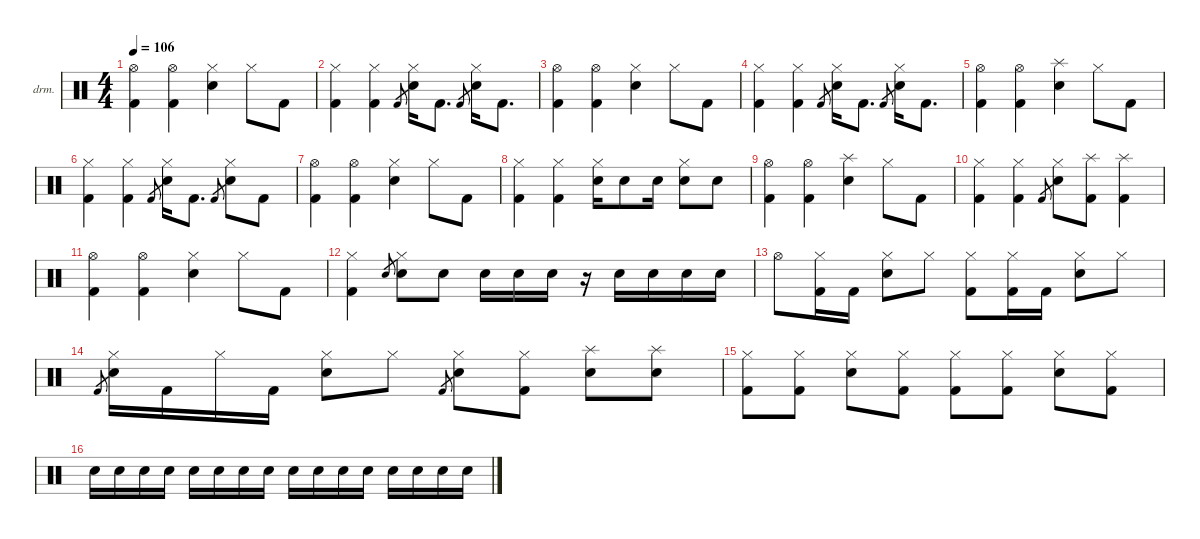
\defaultSystemsLayout 4
\hideDynamics
\bracketExtendMode nobrackets
\firstSystemTrackNameOrientation horizontal
\otherSystemsTrackNameOrientation horizontal
\track ("Lars Ulrich" "drm.") {instrument percussion}
\staff {score}
\articulation defaults
\ts (4 4)
\tempo 106
\clef neutral
\ks c
("Hi-Hat (open)" "Kick (hit) 2").4{dy f} ("Hi-Hat (open)" "Kick (hit) 2").4 ("Hi-Hat (closed)" "Snare (hit) 2").4 "Hi-Hat (closed)".8 "Kick (hit) 2".8 |
("Hi-Hat (closed)" "Kick (hit) 2").4 ("Hi-Hat (closed)" "Kick (hit) 2").4 "Kick (hit) 2".8{gr dy mf} ("Hi-Hat (closed)" "Snare (hit) 2").16{dy f} "Kick (hit) 2".8{d} "Kick (hit) 2".8{gr dy mf} ("Hi-Hat (closed)" "Snare (hit) 2").16{dy f} "Kick (hit) 2".8{d} |
("Hi-Hat (open)" "Kick (hit) 2").4 ("Hi-Hat (open)" "Kick (hit) 2").4 ("Hi-Hat (closed)" "Snare (hit) 2").4 "Hi-Hat (closed)".8 "Kick (hit) 2".8 |
("Hi-Hat (closed)" "Kick (hit) 2").4 ("Hi-Hat (closed)" "Kick (hit) 2").4 "Kick (hit) 2".8{gr dy mf} ("Hi-Hat (closed)" "Snare (hit) 2").16{dy f} "Kick (hit) 2".8{d} "Kick (hit) 2".8{gr dy mf} ("Hi-Hat (closed)" "Snare (hit) 2").16{dy f} "Kick (hit) 2".8{d} |
("Hi-Hat (open)" "Kick (hit) 2").4 ("Hi-Hat (open)" "Kick (hit) 2").4 ("Splash (hit)" "Snare (hit) 2").4{dy fff} "Hi-Hat (closed)".8{dy f} "Kick (hit) 2".8 |
("Hi-Hat (closed)" "Kick (hit) 2").4 ("Hi-Hat (closed)" "Kick (hit) 2").4 "Kick (hit) 2".8{gr dy mf} ("Hi-Hat (closed)" "Snare (hit) 2").16{dy f} "Kick (hit) 2".8{d} "Kick (hit) 2".8{gr dy mf} ("Hi-Hat (closed)" "Snare (hit) 2").8{dy f} "Kick (hit) 2".8 |
("Hi-Hat (open)" "Kick (hit) 2").4 ("Hi-Hat (open)" "Kick (hit) 2").4 ("Hi-Hat (closed)" "Snare (hit) 2").4 "Hi-Hat (closed)".8 "Kick (hit) 2".8 |
("Hi-Hat (closed)" "Kick (hit) 2").4 ("Hi-Hat (closed)" "Kick (hit) 2").4 ("Hi-Hat (closed)" "Snare (hit) 2").16 "Snare (hit) 2".8 "Snare (hit) 2".16 ("Hi-Hat (closed)" "Snare (hit) 2").8 "Snare (hit) 2".8 |
("Hi-Hat (open)" "Kick (hit) 2").4 ("Hi-Hat (open)" "Kick (hit) 2").4 ("Splash (hit)" "Snare (hit) 2").4{dy fff} "Hi-Hat (closed)".8{dy f} "Kick (hit) 2".8 |
("Hi-Hat (closed)" "Kick (hit) 2").4 ("Hi-Hat (closed)" "Kick (hit) 2").4 "Kick (hit) 2".8{gr dy mf} ("Hi-Hat (closed)" "Snare (hit) 2").8{dy f} ("Splash (hit)" "Kick (hit) 2").8{dy fff} ("Splash (hit)" "Kick (hit) 2").4 |
("Hi-Hat (open)" "Kick (hit) 2").4{dy f} ("Hi-Hat (open)" "Kick (hit) 2").4 ("Hi-Hat (closed)" "Snare (hit) 2").4 "Hi-Hat (closed)".8 "Kick (hit) 2".8 |
("Hi-Hat (closed)" "Kick (hit) 2").4 "Electric Snare (hit)".8{gr dy p} ("Hi-Hat (closed)" "Snare (hit) 2").8{dy f} "Snare (hit) 2".8 "Snare (hit) 2".16 "Snare (hit) 2".16 "Snare (hit) 2".16 r.16 "Snare (hit) 2".16 "Snare (hit) 2".16 "Snare (hit) 2".16 "Snare (hit) 2".16 |
"Hi-Hat (open)".8 ("Hi-Hat (closed)" "Kick (hit) 2").16 "Kick (hit) 2".16 ("Hi-Hat (closed)" "Snare (hit) 2").8 "Hi-Hat (closed)".8 ("Hi-Hat (closed)" "Kick (hit) 2").8 ("Hi-Hat (closed)" "Kick (hit) 2").16 "Kick (hit) 2".16 ("Hi-Hat (closed)" "Snare (hit) 2").8 "Hi-Hat (closed)".8 |
"Kick (hit) 2".8{gr dy mf} ("Hi-Hat (closed)" "Snare (hit) 2").16{dy f} "Kick (hit) 2".16 "Hi-Hat (closed)".16 "Kick (hit) 2".16 ("Hi-Hat (closed)" "Snare (hit) 2").8 "Hi-Hat (closed)".8 "Kick (hit) 2".8{gr dy mf} ("Hi-Hat (closed)" "Snare (hit) 2").8{dy f} ("Hi-Hat (closed)" "Kick (hit) 2").8 ("Splash (hit)" "Snare (hit) 2").8{dy fff} ("Splash (hit)" "Snare (hit) 2").8 |
("Hi-Hat (closed)" "Kick (hit) 2").8{dy f} ("Hi-Hat (closed)" "Kick (hit) 2").8 ("Hi-Hat (closed)" "Snare (hit) 2").8 ("Hi-Hat (closed)" "Kick (hit) 2").8 ("Hi-Hat (closed)" "Kick (hit) 2").8 ("Hi-Hat (closed)" "Kick (hit) 2").8 ("Hi-Hat (closed)" "Snare (hit) 2").8 ("Hi-Hat (closed)" "Kick (hit) 2").8 |
"Snare (hit) 2".16{dy pp} "Snare (hit) 2".16 "Snare (hit) 2".16{dy p} "Snare (hit) 2".16 "Snare (hit) 2".16{dy mp} "Snare (hit) 2".16 "Snare (hit) 2".16{dy mf} "Snare (hit) 2".16 "Snare (hit) 2".16{dy f} "Snare (hit) 2".16 "Snare (hit) 2".16 "Snare (hit) 2".16 "Snare (hit) 2".16 "Snare (hit) 2".16 "Snare (hit) 2".16 "Snare (hit) 2".16
